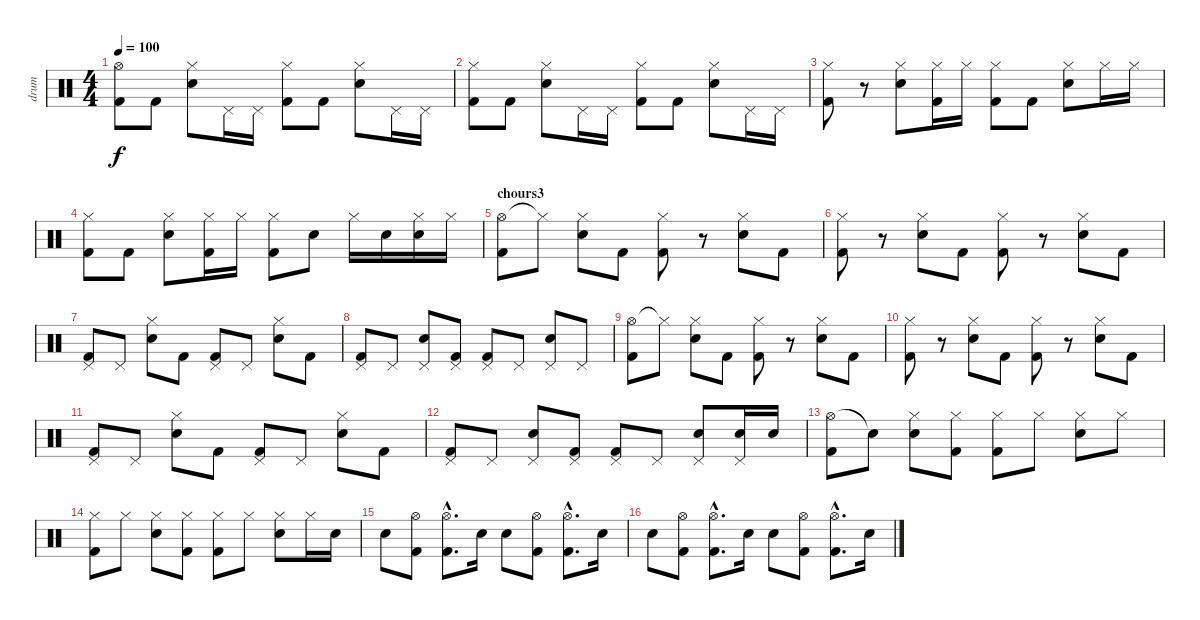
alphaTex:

\track ("drum" "drum") {instrument percussion}
\staff {score}
\articulation defaults
\ts (4 4)
\tempo 100
\clef neutral
\ks c
("Hi-Hat (open)" "Kick (hit) 2").8{dy f} "Kick (hit) 2".8 ("Hi-Hat (closed)" "Electric Snare (hit)").8 "Pedal Hi-Hat (hit)".16 "Pedal Hi-Hat (hit)".16 ("Hi-Hat (closed)" "Kick (hit) 2").8 "Kick (hit) 2".8 ("Hi-Hat (closed)" "Electric Snare (hit)").8 "Pedal Hi-Hat (hit)".16 "Pedal Hi-Hat (hit)".16 |
("Hi-Hat (closed)" "Kick (hit) 2").8 "Kick (hit) 2".8 ("Hi-Hat (closed)" "Electric Snare (hit)").8 "Pedal Hi-Hat (hit)".16 "Pedal Hi-Hat (hit)".16 ("Hi-Hat (closed)" "Kick (hit) 2").8 "Kick (hit) 2".8 ("Hi-Hat (closed)" "Electric Snare (hit)").8 "Pedal Hi-Hat (hit)".16 "Pedal Hi-Hat (hit)".16 |
("Hi-Hat (closed)" "Kick (hit) 2").8 r.8 ("Hi-Hat (closed)" "Electric Snare (hit)").8 ("Hi-Hat (closed)" "Kick (hit) 2").16 "Hi-Hat (closed)".16 ("Hi-Hat (closed)" "Kick (hit) 2").8 "Kick (hit) 2".8 ("Hi-Hat (closed)" "Electric Snare (hit)").8 "Hi-Hat (closed)".16 "Hi-Hat (closed)".16 |
("Hi-Hat (closed)" "Kick (hit) 2").8 "Kick (hit) 2".8 ("Hi-Hat (closed)" "Electric Snare (hit)").8 ("Hi-Hat (closed)" "Kick (hit) 2").16 "Hi-Hat (closed)".16 ("Hi-Hat (closed)" "Kick (hit) 2").8 "Electric Snare (hit)".8 "Hi-Hat (closed)".16 "Electric Snare (hit)".16 ("Hi-Hat (closed)" "Electric Snare (hit)").16 "Hi-Hat (closed)".16 |
\section ("" "chours3")
("Hi-Hat (open)" "Kick (hit) 2").8 "Hi-Hat (closed)"{t}.8 ("Hi-Hat (closed)" "Electric Snare (hit)").8 "Kick (hit) 2".8 ("Hi-Hat (closed)" "Kick (hit) 2").8 r.8 ("Hi-Hat (closed)" "Electric Snare (hit)").8 "Kick (hit) 2".8 |
("Hi-Hat (closed)" "Kick (hit) 2").8 r.8 ("Hi-Hat (closed)" "Electric Snare (hit)").8 "Kick (hit) 2".8 ("Hi-Hat (closed)" "Kick (hit) 2").8 r.8 ("Hi-Hat (closed)" "Electric Snare (hit)").8 "Kick (hit) 2".8 |
("Pedal Hi-Hat (hit)" "Kick (hit) 2").8 "Pedal Hi-Hat (hit)".8 ("Hi-Hat (closed)" "Electric Snare (hit)").8 "Kick (hit) 2".8 ("Pedal Hi-Hat (hit)" "Kick (hit) 2").8 "Pedal Hi-Hat (hit)".8 ("Hi-Hat (closed)" "Electric Snare (hit)").8 "Kick (hit) 2".8 |
("Pedal Hi-Hat (hit)" "Kick (hit) 2").8 "Pedal Hi-Hat (hit)".8 ("Pedal Hi-Hat (hit)" "Electric Snare (hit)").8 ("Pedal Hi-Hat (hit)" "Kick (hit) 2").8 ("Pedal Hi-Hat (hit)" "Kick (hit) 2").8 "Pedal Hi-Hat (hit)".8 ("Pedal Hi-Hat (hit)" "Electric Snare (hit)").8 "Pedal Hi-Hat (hit)".8 |
("Hi-Hat (open)" "Kick (hit) 2").8 "Hi-Hat (closed)"{t}.8 ("Hi-Hat (closed)" "Electric Snare (hit)").8 "Kick (hit) 2".8 ("Hi-Hat (closed)" "Kick (hit) 2").8 r.8 ("Hi-Hat (closed)" "Electric Snare (hit)").8 "Kick (hit) 2".8 |
("Hi-Hat (closed)" "Kick (hit) 2").8 r.8 ("Hi-Hat (closed)" "Electric Snare (hit)").8 "Kick (hit) 2".8 ("Hi-Hat (closed)" "Kick (hit) 2").8 r.8 ("Hi-Hat (closed)" "Electric Snare (hit)").8 "Kick (hit) 2".8 |
("Pedal Hi-Hat (hit)" "Kick (hit) 2").8 "Pedal Hi-Hat (hit)".8 ("Hi-Hat (closed)" "Electric Snare (hit)").8 "Kick (hit) 2".8 ("Pedal Hi-Hat (hit)" "Kick (hit) 2").8 "Pedal Hi-Hat (hit)".8 ("Hi-Hat (closed)" "Electric Snare (hit)").8 "Kick (hit) 2".8 |
("Pedal Hi-Hat (hit)" "Kick (hit) 2").8 "Pedal Hi-Hat (hit)".8 ("Pedal Hi-Hat (hit)" "Electric Snare (hit)").8 ("Pedal Hi-Hat (hit)" "Kick (hit) 2").8 ("Pedal Hi-Hat (hit)" "Kick (hit) 2").8 "Pedal Hi-Hat (hit)".8 ("Pedal Hi-Hat (hit)" "Electric Snare (hit)").8 ("Pedal Hi-Hat (hit)" "Electric Snare (hit)").16 "Electric Snare (hit)".16 |
("Hi-Hat (open)" "Kick (hit) 2").8 "Snare (hit)"{t}.8 ("Hi-Hat (closed)" "Electric Snare (hit)").8 ("Hi-Hat (closed)" "Kick (hit) 2").8 ("Hi-Hat (closed)" "Kick (hit) 2").8 "Hi-Hat (closed)".8 ("Hi-Hat (closed)" "Electric Snare (hit)").8 "Hi-Hat (closed)".8 |
("Hi-Hat (closed)" "Kick (hit) 2").8 "Hi-Hat (closed)".8 ("Hi-Hat (closed)" "Electric Snare (hit)").8 ("Hi-Hat (closed)" "Kick (hit) 2").8 ("Hi-Hat (closed)" "Kick (hit) 2").8 "Hi-Hat (closed)".8 ("Hi-Hat (closed)" "Electric Snare (hit)").8 "Hi-Hat (closed)".16 "Electric Snare (hit)".16 |
"Electric Snare (hit)".8 ("Hi-Hat (open)" "Kick (hit) 2").8 ("Hi-Hat (open)"{hac} "Kick (hit) 2"{hac}).8{d} "Electric Snare (hit)".16 "Electric Snare (hit)".8 ("Hi-Hat (open)" "Kick (hit) 2").8 ("Hi-Hat (open)"{hac} "Kick (hit) 2"{hac}).8{d} "Electric Snare (hit)".16 |
"Electric Snare (hit)".8 ("Hi-Hat (open)" "Kick (hit) 2").8 ("Hi-Hat (open)"{hac} "Kick (hit) 2"{hac}).8{d} "Electric Snare (hit)".16 "Electric Snare (hit)".8 ("Hi-Hat (open)" "Kick (hit) 2").8 ("Hi-Hat (open)"{hac} "Kick (hit) 2"{hac}).8{d} "Electric Snare (hit)".16
